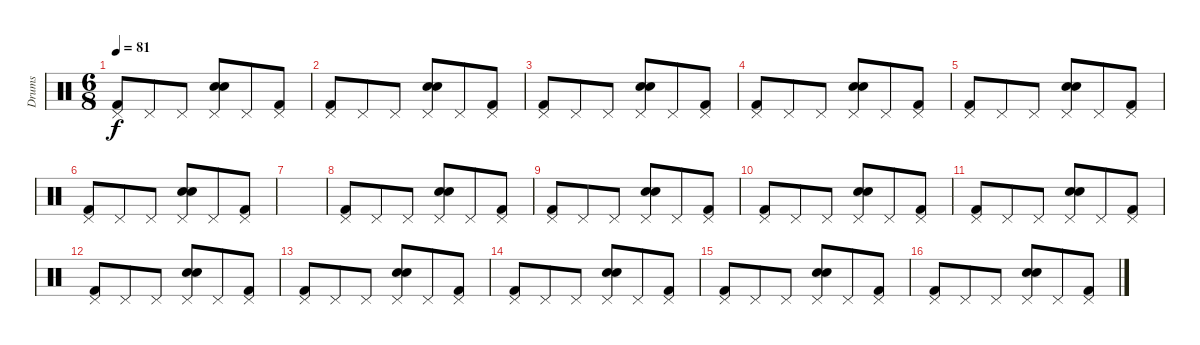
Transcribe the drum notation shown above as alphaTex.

\track ("Drums" "Drums") {instrument percussion}
\staff {score}
\articulation defaults
\ts (6 8)
\tempo 81
\clef neutral
\ks c
("Kick (hit) 2" "Pedal Hi-Hat (hit)").8{dy f} "Pedal Hi-Hat (hit)".8 "Pedal Hi-Hat (hit)".8 ("Electric Snare (hit)" "Snare (hit) 2" "Pedal Hi-Hat (hit)").8 "Pedal Hi-Hat (hit)".8 ("Kick (hit) 2" "Pedal Hi-Hat (hit)").8 |
("Kick (hit) 2" "Pedal Hi-Hat (hit)").8 "Pedal Hi-Hat (hit)".8 "Pedal Hi-Hat (hit)".8 ("Electric Snare (hit)" "Snare (hit) 2" "Pedal Hi-Hat (hit)").8 "Pedal Hi-Hat (hit)".8 ("Kick (hit) 2" "Pedal Hi-Hat (hit)").8 |
("Kick (hit) 2" "Pedal Hi-Hat (hit)").8 "Pedal Hi-Hat (hit)".8 "Pedal Hi-Hat (hit)".8 ("Electric Snare (hit)" "Snare (hit) 2" "Pedal Hi-Hat (hit)").8 "Pedal Hi-Hat (hit)".8 ("Kick (hit) 2" "Pedal Hi-Hat (hit)").8 |
("Kick (hit) 2" "Pedal Hi-Hat (hit)").8 "Pedal Hi-Hat (hit)".8 "Pedal Hi-Hat (hit)".8 ("Electric Snare (hit)" "Snare (hit) 2" "Pedal Hi-Hat (hit)").8 "Pedal Hi-Hat (hit)".8 ("Kick (hit) 2" "Pedal Hi-Hat (hit)").8 |
("Kick (hit) 2" "Pedal Hi-Hat (hit)").8 "Pedal Hi-Hat (hit)".8 "Pedal Hi-Hat (hit)".8 ("Electric Snare (hit)" "Snare (hit) 2" "Pedal Hi-Hat (hit)").8 "Pedal Hi-Hat (hit)".8 ("Kick (hit) 2" "Pedal Hi-Hat (hit)").8 |
("Kick (hit) 2" "Pedal Hi-Hat (hit)").8 "Pedal Hi-Hat (hit)".8 "Pedal Hi-Hat (hit)".8 ("Electric Snare (hit)" "Snare (hit) 2" "Pedal Hi-Hat (hit)").8 "Pedal Hi-Hat (hit)".8 ("Kick (hit) 2" "Pedal Hi-Hat (hit)").8 |
|
("Kick (hit) 2" "Pedal Hi-Hat (hit)").8 "Pedal Hi-Hat (hit)".8 "Pedal Hi-Hat (hit)".8 ("Electric Snare (hit)" "Snare (hit) 2" "Pedal Hi-Hat (hit)").8 "Pedal Hi-Hat (hit)".8 ("Kick (hit) 2" "Pedal Hi-Hat (hit)").8 |
("Kick (hit) 2" "Pedal Hi-Hat (hit)").8 "Pedal Hi-Hat (hit)".8 "Pedal Hi-Hat (hit)".8 ("Electric Snare (hit)" "Snare (hit) 2" "Pedal Hi-Hat (hit)").8 "Pedal Hi-Hat (hit)".8 ("Kick (hit) 2" "Pedal Hi-Hat (hit)").8 |
("Kick (hit) 2" "Pedal Hi-Hat (hit)").8 "Pedal Hi-Hat (hit)".8 "Pedal Hi-Hat (hit)".8 ("Electric Snare (hit)" "Snare (hit) 2" "Pedal Hi-Hat (hit)").8 "Pedal Hi-Hat (hit)".8 ("Kick (hit) 2" "Pedal Hi-Hat (hit)").8 |
("Kick (hit) 2" "Pedal Hi-Hat (hit)").8 "Pedal Hi-Hat (hit)".8 "Pedal Hi-Hat (hit)".8 ("Electric Snare (hit)" "Snare (hit) 2" "Pedal Hi-Hat (hit)").8 "Pedal Hi-Hat (hit)".8 ("Kick (hit) 2" "Pedal Hi-Hat (hit)").8 |
("Kick (hit) 2" "Pedal Hi-Hat (hit)").8 "Pedal Hi-Hat (hit)".8 "Pedal Hi-Hat (hit)".8 ("Electric Snare (hit)" "Snare (hit) 2" "Pedal Hi-Hat (hit)").8 "Pedal Hi-Hat (hit)".8 ("Kick (hit) 2" "Pedal Hi-Hat (hit)").8 |
("Kick (hit) 2" "Pedal Hi-Hat (hit)").8 "Pedal Hi-Hat (hit)".8 "Pedal Hi-Hat (hit)".8 ("Electric Snare (hit)" "Snare (hit) 2" "Pedal Hi-Hat (hit)").8 "Pedal Hi-Hat (hit)".8 ("Kick (hit) 2" "Pedal Hi-Hat (hit)").8 |
("Kick (hit) 2" "Pedal Hi-Hat (hit)").8 "Pedal Hi-Hat (hit)".8 "Pedal Hi-Hat (hit)".8 ("Electric Snare (hit)" "Snare (hit) 2" "Pedal Hi-Hat (hit)").8 "Pedal Hi-Hat (hit)".8 ("Kick (hit) 2" "Pedal Hi-Hat (hit)").8 |
("Kick (hit) 2" "Pedal Hi-Hat (hit)").8 "Pedal Hi-Hat (hit)".8 "Pedal Hi-Hat (hit)".8 ("Electric Snare (hit)" "Snare (hit) 2" "Pedal Hi-Hat (hit)").8 "Pedal Hi-Hat (hit)".8 ("Kick (hit) 2" "Pedal Hi-Hat (hit)").8 |
("Kick (hit) 2" "Pedal Hi-Hat (hit)").8 "Pedal Hi-Hat (hit)".8 "Pedal Hi-Hat (hit)".8 ("Electric Snare (hit)" "Snare (hit) 2" "Pedal Hi-Hat (hit)").8 "Pedal Hi-Hat (hit)".8 ("Kick (hit) 2" "Pedal Hi-Hat (hit)").8
